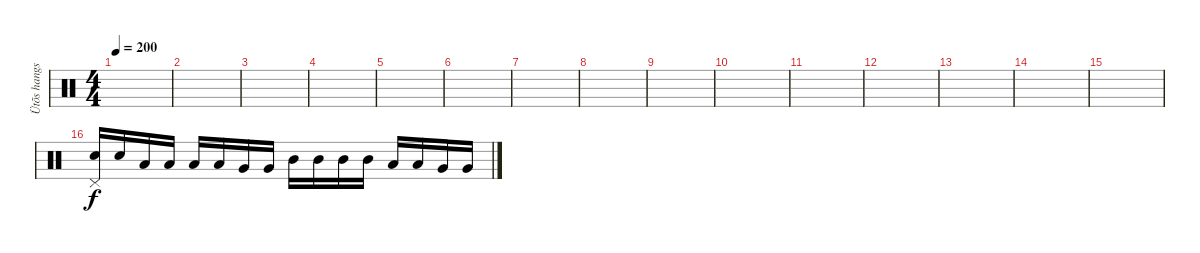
\track ("Ütõs hangszer" "Ütõs hangs") {instrument percussion}
\staff {score}
\articulation defaults
\ts (4 4)
\tempo 200
\clef neutral
\ks c
|
|
|
|
|
|
|
|
|
|
|
|
|
|
|
("Pedal Hi-Hat (hit)" "Electric Snare (hit)").16 "Electric Snare (hit)".16 "Low Tom (hit)".16 "Low Tom (hit)".16 "Low Tom (hit)".16 "Low Tom (hit)".16 "Very Low Tom (hit)".16 "Very Low Tom (hit)".16 "Mid Tom (hit)".16 "Mid Tom (hit)".16 "Mid Tom (hit)".16 "Mid Tom (hit)".16 "Low Tom (hit)".16 "Low Tom (hit)".16 "Very Low Tom (hit)".16 "Very Low Tom (hit)".16
